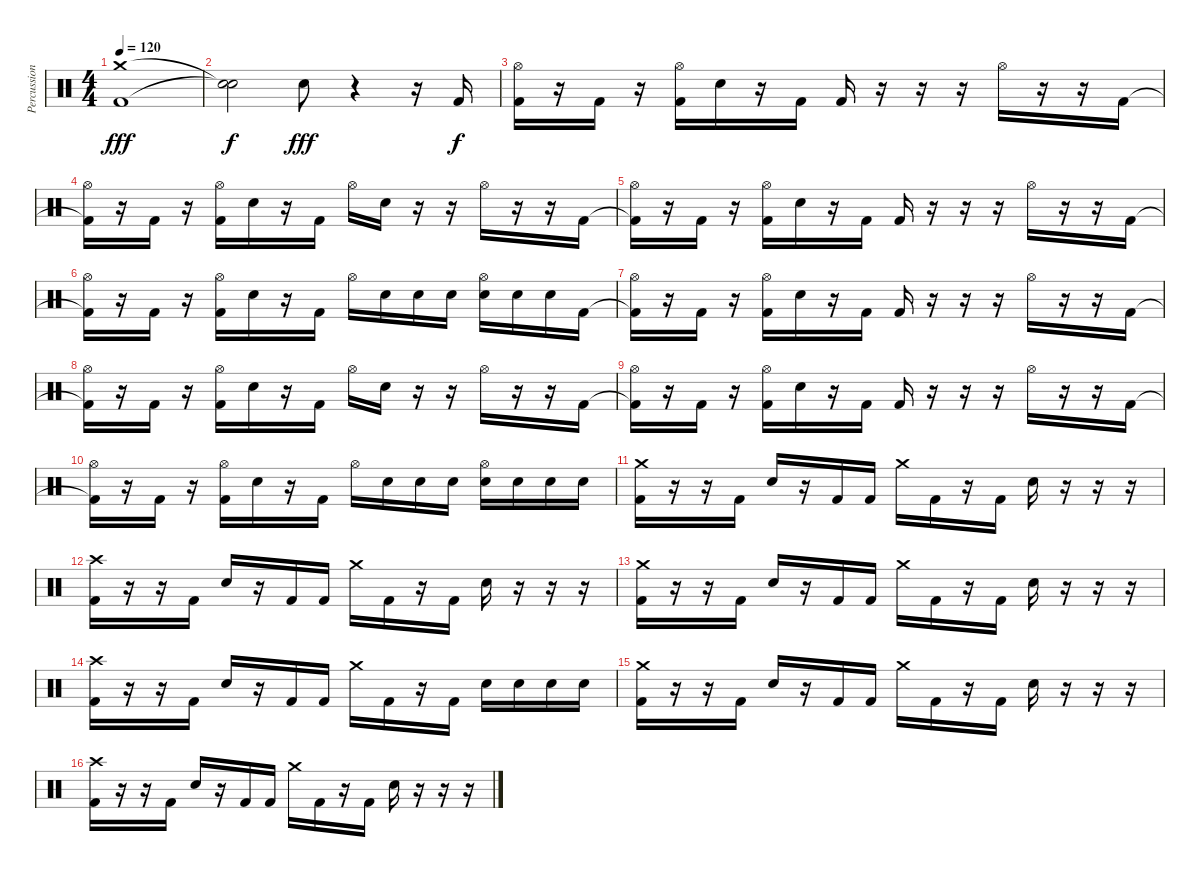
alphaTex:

\track ("Percussion" "Percussion") {instrument percussion}
\staff {score}
\articulation defaults
\ts (4 4)
\tempo 120
\clef neutral
\ks c
("Crash medium (hit)" "Kick (hit) 2").1{dy fff} |
("Snare (hit)"{t} "Snare (hit)"{t}).2{dy f} "Snare (hit) 2".8{dy fff} r.4 r.16 "Kick (hit) 2".16{dy f} |
("Kick (hit) 2" "Hi-Hat (open)").16 r.16 "Kick (hit) 2".16 r.16 ("Kick (hit) 2" "Hi-Hat (open)").16 "Snare (hit) 2".16 r.16 "Kick (hit) 2".16 "Kick (hit) 2".16 r.16 r.16 r.16 "Hi-Hat (open)".16 r.16 r.16 "Kick (hit) 2".16 |
("Kick (hit) 2"{t} "Hi-Hat (open)").16 r.16 "Kick (hit) 2".16 r.16 ("Kick (hit) 2" "Hi-Hat (open)").16 "Snare (hit) 2".16 r.16 "Kick (hit) 2".16 "Hi-Hat (open)".16 "Snare (hit) 2".16 r.16 r.16 "Hi-Hat (open)".16 r.16 r.16 "Kick (hit) 2".16 |
("Kick (hit) 2"{t} "Hi-Hat (open)").16 r.16 "Kick (hit) 2".16 r.16 ("Kick (hit) 2" "Hi-Hat (open)").16 "Snare (hit) 2".16 r.16 "Kick (hit) 2".16 "Kick (hit) 2".16 r.16 r.16 r.16 "Hi-Hat (open)".16 r.16 r.16 "Kick (hit) 2".16 |
("Kick (hit) 2"{t} "Hi-Hat (open)").16 r.16 "Kick (hit) 2".16 r.16 ("Kick (hit) 2" "Hi-Hat (open)").16 "Snare (hit) 2".16 r.16 "Kick (hit) 2".16 "Hi-Hat (open)".16 "Snare (hit) 2".16 "Snare (hit) 2".16 "Snare (hit) 2".16 ("Snare (hit) 2" "Hi-Hat (open)").16 "Snare (hit) 2".16 "Snare (hit) 2".16 "Kick (hit) 2".16 |
("Kick (hit) 2"{t} "Hi-Hat (open)").16 r.16 "Kick (hit) 2".16 r.16 ("Kick (hit) 2" "Hi-Hat (open)").16 "Snare (hit) 2".16 r.16 "Kick (hit) 2".16 "Kick (hit) 2".16 r.16 r.16 r.16 "Hi-Hat (open)".16 r.16 r.16 "Kick (hit) 2".16 |
("Kick (hit) 2"{t} "Hi-Hat (open)").16 r.16 "Kick (hit) 2".16 r.16 ("Kick (hit) 2" "Hi-Hat (open)").16 "Snare (hit) 2".16 r.16 "Kick (hit) 2".16 "Hi-Hat (open)".16 "Snare (hit) 2".16 r.16 r.16 "Hi-Hat (open)".16 r.16 r.16 "Kick (hit) 2".16 |
("Kick (hit) 2"{t} "Hi-Hat (open)").16 r.16 "Kick (hit) 2".16 r.16 ("Kick (hit) 2" "Hi-Hat (open)").16 "Snare (hit) 2".16 r.16 "Kick (hit) 2".16 "Kick (hit) 2".16 r.16 r.16 r.16 "Hi-Hat (open)".16 r.16 r.16 "Kick (hit) 2".16 |
("Kick (hit) 2"{t} "Hi-Hat (open)").16 r.16 "Kick (hit) 2".16 r.16 ("Kick (hit) 2" "Hi-Hat (open)").16 "Snare (hit) 2".16 r.16 "Kick (hit) 2".16 "Hi-Hat (open)".16 "Snare (hit) 2".16 "Snare (hit) 2".16 "Snare (hit) 2".16 ("Snare (hit) 2" "Hi-Hat (open)").16 "Snare (hit) 2".16 "Snare (hit) 2".16 "Snare (hit) 2".16 |
("Kick (hit) 2" "Crash medium (hit)").16 r.16 r.16 "Kick (hit) 2".16 "Snare (hit) 2".16 r.16 "Kick (hit) 2".16 "Kick (hit) 2".16 "Crash medium (hit)".16 "Kick (hit) 2".16 r.16 "Kick (hit) 2".16 "Snare (hit) 2".16 r.16 r.16 r.16 |
("Kick (hit) 2" "Crash high (hit)").16 r.16 r.16 "Kick (hit) 2".16 "Snare (hit) 2".16 r.16 "Kick (hit) 2".16 "Kick (hit) 2".16 "Crash medium (hit)".16 "Kick (hit) 2".16 r.16 "Kick (hit) 2".16 "Snare (hit) 2".16 r.16 r.16 r.16 |
("Kick (hit) 2" "Crash medium (hit)").16 r.16 r.16 "Kick (hit) 2".16 "Snare (hit) 2".16 r.16 "Kick (hit) 2".16 "Kick (hit) 2".16 "Crash medium (hit)".16 "Kick (hit) 2".16 r.16 "Kick (hit) 2".16 "Snare (hit) 2".16 r.16 r.16 r.16 |
("Kick (hit) 2" "Crash high (hit)").16 r.16 r.16 "Kick (hit) 2".16 "Snare (hit) 2".16 r.16 "Kick (hit) 2".16 "Kick (hit) 2".16 "Crash medium (hit)".16 "Kick (hit) 2".16 r.16 "Kick (hit) 2".16 "Snare (hit) 2".16 "Snare (hit) 2".16 "Snare (hit) 2".16 "Snare (hit) 2".16 |
("Kick (hit) 2" "Crash medium (hit)").16 r.16 r.16 "Kick (hit) 2".16 "Snare (hit) 2".16 r.16 "Kick (hit) 2".16 "Kick (hit) 2".16 "Crash medium (hit)".16 "Kick (hit) 2".16 r.16 "Kick (hit) 2".16 "Snare (hit) 2".16 r.16 r.16 r.16 |
("Kick (hit) 2" "Crash high (hit)").16 r.16 r.16 "Kick (hit) 2".16 "Snare (hit) 2".16 r.16 "Kick (hit) 2".16 "Kick (hit) 2".16 "Crash medium (hit)".16 "Kick (hit) 2".16 r.16 "Kick (hit) 2".16 "Snare (hit) 2".16 r.16 r.16 r.16
